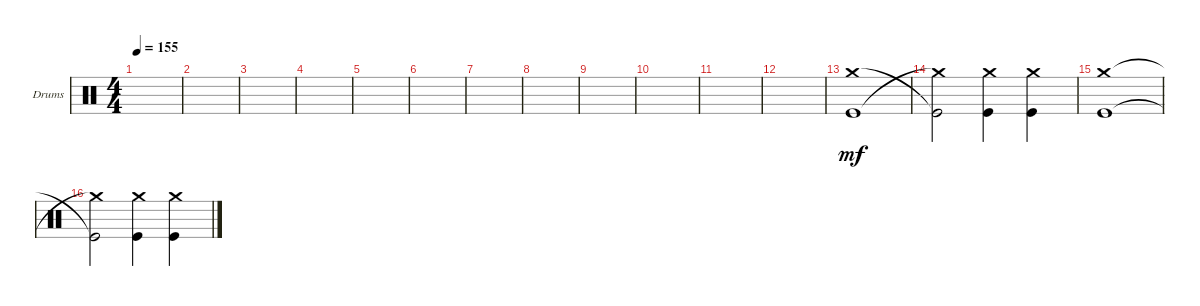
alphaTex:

\defaultSystemsLayout 4
\bracketExtendMode groupsimilarinstruments
\firstSystemTrackNameOrientation horizontal
\otherSystemsTrackNameOrientation horizontal
\track ("Drumkit" "Drums") {instrument percussion}
\staff {score}
\articulation defaults
\ts (4 4)
\tempo 155
\clef neutral
\scale
0.333333
\ks c
|
\scale
0.333333 |
\scale
0.333333 |
\scale
0.333333 |
\scale
0.333333 |
\scale
0.333333 |
\scale
0.333333 |
\scale
0.333333 |
\scale
0.333333 |
\scale
0.333333 |
\scale
0.333333 |
\scale
0.333333 |
\scale
0.333333 ("Crash medium (hit)" "Kick (hit)").1{dy mf} |
\scale
0.333333 ("Kick (hit)"{t} "Crash medium (hit)"{t}).2 ("Kick (hit)" "Crash medium (hit)").4 ("Crash medium (hit)" "Kick (hit)").4 |
\scale
0.333333 ("Crash medium (hit)" "Kick (hit)").1 |
\scale
0.333333 ("Kick (hit)"{t} "Crash medium (hit)"{t}).2 ("Kick (hit)" "Crash medium (hit)").4 ("Crash medium (hit)" "Kick (hit)").4
